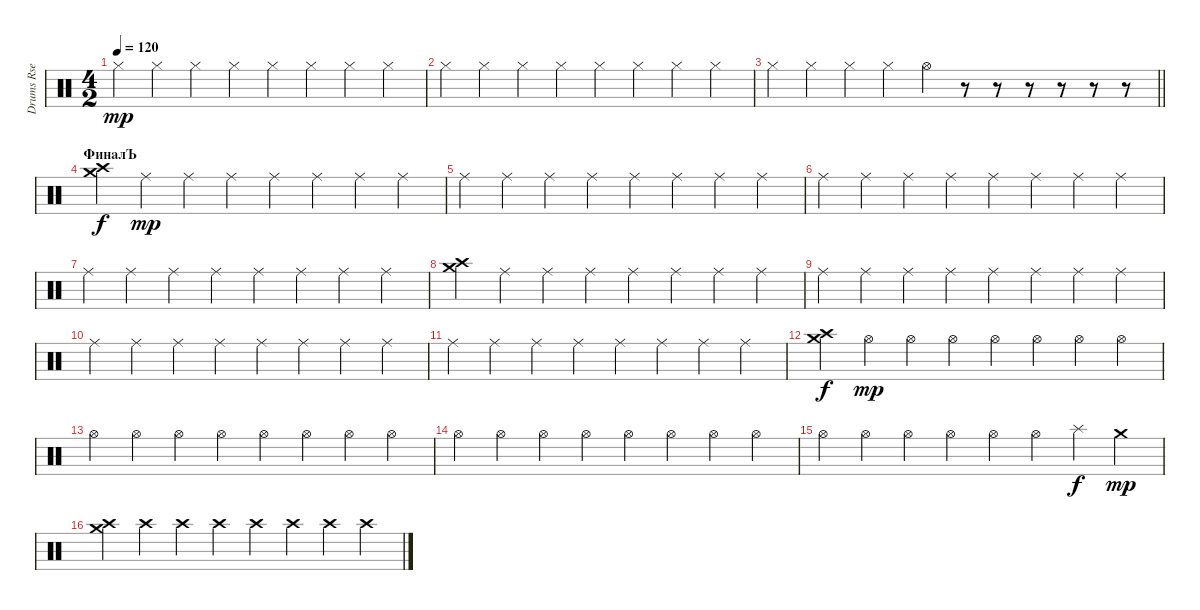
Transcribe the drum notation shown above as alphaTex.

\track ("Drums Rse" "Drums Rse") {instrument percussion}
\staff {score}
\articulation defaults
\ts (4 2)
\tempo 120
\clef neutral
\ks c "Hi-Hat (closed)".4{dy mp} "Hi-Hat (closed)".4 "Hi-Hat (closed)".4 "Hi-Hat (closed)".4 "Hi-Hat (closed)".4 "Hi-Hat (closed)".4 "Hi-Hat (closed)".4 "Hi-Hat (closed)".4
|
"Hi-Hat (closed)".4 "Hi-Hat (closed)".4 "Hi-Hat (closed)".4 "Hi-Hat (closed)".4 "Hi-Hat (closed)".4 "Hi-Hat (closed)".4 "Hi-Hat (closed)".4 "Hi-Hat (closed)".4 |
\barLineRight lightlight "Hi-Hat (closed)".4 "Hi-Hat (closed)".4 "Hi-Hat (closed)".4 "Hi-Hat (closed)".4 "Hi-Hat (open)".4
r.8 r.8 r.8 r.8 r.8 r.8 |
\section ("" "ФиналЪ")
("Crash medium (hit)" "Crash high (hit)").4{dy f} "Ride (middle)".4{dy mp} "Ride (middle)".4 "Ride (middle)".4 "Ride (middle)".4 "Ride (middle)".4 "Ride (middle)".4 "Ride (middle)".4 |
"Ride (middle)".4 "Ride (middle)".4 "Ride (middle)".4 "Ride (middle)".4 "Ride (middle)".4 "Ride (middle)".4 "Ride (middle)".4 "Ride (middle)".4 |
"Ride (middle)".4 "Ride (middle)".4 "Ride (middle)".4 "Ride (middle)".4 "Ride (middle)".4 "Ride (middle)".4 "Ride (middle)".4 "Ride (middle)".4 |
"Ride (middle)".4 "Ride (middle)".4 "Ride (middle)".4 "Ride (middle)".4 "Ride (middle)".4 "Ride (middle)".4 "Ride (middle)".4 "Ride (middle)".4 |
("Crash medium (hit)" "Crash high (hit)").4 "Ride (middle)".4 "Ride (middle)".4 "Ride (middle)".4 "Ride (middle)".4 "Ride (middle)".4 "Ride (middle)".4 "Ride (middle)".4 |
"Ride (middle)".4 "Ride (middle)".4 "Ride (middle)".4 "Ride (middle)".4 "Ride (middle)".4 "Ride (middle)".4 "Ride (middle)".4 "Ride (middle)".4 |
"Ride (middle)".4 "Ride (middle)".4 "Ride (middle)".4 "Ride (middle)".4 "Ride (middle)".4 "Ride (middle)".4 "Ride (middle)".4 "Ride (middle)".4 |
"Ride (middle)".4 "Ride (middle)".4 "Ride (middle)".4 "Ride (middle)".4 "Ride (middle)".4 "Ride (middle)".4 "Ride (middle)".4 "Ride (middle)".4 |
("Crash medium (hit)" "Crash high (hit)").4{dy f} "Hi-Hat (open)".4{dy mp} "Hi-Hat (open)".4 "Hi-Hat (open)".4 "Hi-Hat (open)".4 "Hi-Hat (open)".4 "Hi-Hat (open)".4 "Hi-Hat (open)".4 |
"Hi-Hat (open)".4 "Hi-Hat (open)".4 "Hi-Hat (open)".4 "Hi-Hat (open)".4 "Hi-Hat (open)".4 "Hi-Hat (open)".4 "Hi-Hat (open)".4 "Hi-Hat (open)".4 |
"Hi-Hat (open)".4 "Hi-Hat (open)".4 "Hi-Hat (open)".4 "Hi-Hat (open)".4 "Hi-Hat (open)".4 "Hi-Hat (open)".4 "Hi-Hat (open)".4 "Hi-Hat (open)".4 |
"Hi-Hat (open)".4 "Hi-Hat (open)".4 "Hi-Hat (open)".4 "Hi-Hat (open)".4 "Hi-Hat (open)".4 "Hi-Hat (open)".4 "Splash (hit)".4{dy f} "Crash medium (hit)".4{dy mp} |
("Crash medium (hit)" "Crash high (hit)").4 "Crash high (hit)".4 "Crash high (hit)".4 "Crash high (hit)".4 "Crash high (hit)".4 "Crash high (hit)".4 "Crash high (hit)".4 "Crash high (hit)".4
